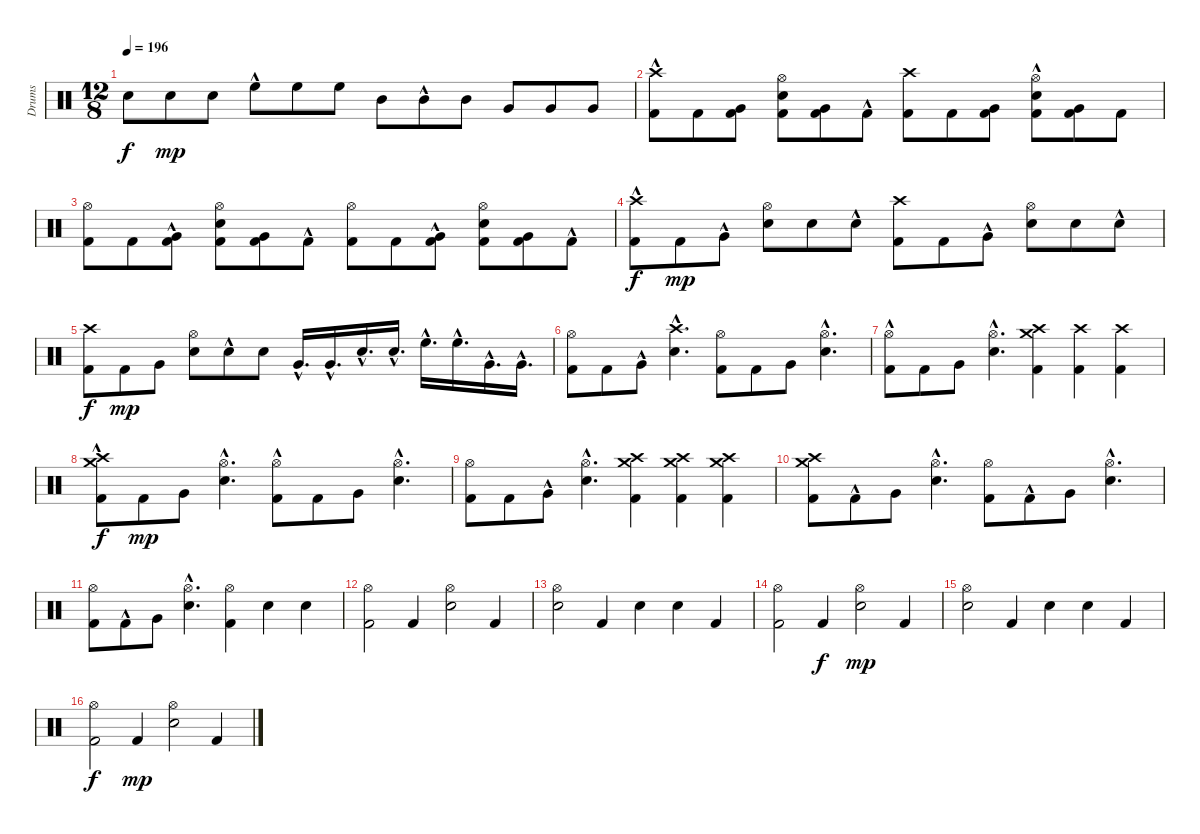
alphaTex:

\track ("Drums" "Drums") {instrument percussion}
\staff {score}
\articulation defaults
\ts (12 8)
\tempo 196
\clef neutral
\ks c "Electric Snare (hit)".8{dy f} "Electric Snare (hit)".8{dy mp} "Electric Snare (hit)".8 "High Floor Tom (hit)"{hac}.8 "High Floor Tom (hit)".8 "High Floor Tom (hit)".8 "Mid Tom (hit)".8 "Mid Tom (hit)"{hac}.8 "Mid Tom (hit)".8 "Very Low Tom (hit)".8 "Very Low Tom (hit)".8 "Very Low Tom (hit)".8
|
("Kick (hit) 2"{hac} "Crash high (hit)").8 "Kick (hit) 2".8 ("Kick (hit) 2" "Very Low Tom (hit)").8 ("Kick (hit) 2" "Electric Snare (hit)" "Hi-Hat (open)").8 ("Kick (hit) 2" "Very Low Tom (hit)").8 "Kick (hit) 2"{hac}.8 ("Kick (hit) 2" "Crash high (hit)").8 "Kick (hit) 2".8 ("Kick (hit) 2" "Very Low Tom (hit)").8 ("Kick (hit) 2"{hac} "Electric Snare (hit)"{hac} "Hi-Hat (open)").8 ("Kick (hit) 2" "Very Low Tom (hit)").8 "Kick (hit) 2".8 |
("Kick (hit) 2" "Hi-Hat (open)").8 "Kick (hit) 2".8 ("Kick (hit) 2"{hac} "Very Low Tom (hit)"{hac}).8 ("Kick (hit) 2" "Electric Snare (hit)" "Hi-Hat (open)").8 ("Kick (hit) 2" "Very Low Tom (hit)").8 "Kick (hit) 2"{hac}.8 ("Kick (hit) 2" "Hi-Hat (open)").8 "Kick (hit) 2".8 ("Kick (hit) 2"{hac} "Very Low Tom (hit)"{hac}).8 ("Kick (hit) 2" "Electric Snare (hit)" "Hi-Hat (open)").8 ("Kick (hit) 2" "Very Low Tom (hit)").8 "Kick (hit) 2"{hac}.8 |
("Kick (hit) 2" "Crash high (hit)"{hac}).8{dy f} "Kick (hit) 2".8{dy mp} "Very Low Tom (hit)"{hac}.8 ("Electric Snare (hit)" "Hi-Hat (open)").8 "Electric Snare (hit)".8 "Electric Snare (hit)"{hac}.8 ("Kick (hit) 2" "Crash high (hit)").8 "Kick (hit) 2".8 "Very Low Tom (hit)"{hac}.8 ("Electric Snare (hit)" "Hi-Hat (open)").8 "Electric Snare (hit)".8 "Electric Snare (hit)"{hac}.8 |
("Kick (hit) 2" "Crash high (hit)").8{dy f} "Kick (hit) 2".8{dy mp} "Very Low Tom (hit)".8 ("Electric Snare (hit)" "Hi-Hat (open)").8 "Electric Snare (hit)"{hac}.8 "Electric Snare (hit)".8 "Very Low Tom (hit)"{hac}.16{d} "Very Low Tom (hit)"{hac}.16{d} "Electric Snare (hit)"{hac}.16{d} "Electric Snare (hit)"{hac}.16{d} "High Floor Tom (hit)"{hac}.16{d} "High Floor Tom (hit)"{hac}.16{d} "Very Low Tom (hit)"{hac}.16{d} "Very Low Tom (hit)"{hac}.16{d} |
("Kick (hit) 2" "Hi-Hat (open)").8 "Kick (hit) 2".8 "Very Low Tom (hit)"{hac}.8 ("Electric Snare (hit)"{hac} "Crash high (hit)"{hac}).4{d} ("Kick (hit) 2" "Hi-Hat (open)").8 "Kick (hit) 2".8 "Very Low Tom (hit)".8 ("Electric Snare (hit)"{hac} "Hi-Hat (open)"{hac}).4{d} |
("Kick (hit) 2"{hac} "Hi-Hat (open)").8 "Kick (hit) 2".8 "Very Low Tom (hit)".8 ("Electric Snare (hit)"{hac} "Hi-Hat (open)"{hac}).4{d} ("Kick (hit) 2" "Crash high (hit)" "Crash medium (hit)").4 ("Kick (hit) 2" "Crash high (hit)").4 ("Kick (hit) 2" "Crash high (hit)").4 |
("Kick (hit) 2" "Crash high (hit)"{hac} "Crash medium (hit)"{hac}).8{dy f} "Kick (hit) 2".8{dy mp} "Very Low Tom (hit)".8 ("Electric Snare (hit)"{hac} "Hi-Hat (open)"{hac}).4{d} ("Kick (hit) 2"{hac} "Hi-Hat (open)").8 "Kick (hit) 2".8 "Very Low Tom (hit)".8 ("Electric Snare (hit)"{hac} "Hi-Hat (open)"{hac}).4{d} |
("Kick (hit) 2" "Hi-Hat (open)").8 "Kick (hit) 2".8 "Very Low Tom (hit)"{hac}.8 ("Electric Snare (hit)"{hac} "Hi-Hat (open)"{hac}).4{d} ("Kick (hit) 2" "Crash high (hit)" "Crash medium (hit)").4 ("Kick (hit) 2" "Crash high (hit)" "Crash medium (hit)").4 ("Kick (hit) 2" "Crash high (hit)" "Crash medium (hit)").4 |
("Kick (hit) 2" "Crash high (hit)" "Crash medium (hit)").8 "Kick (hit) 2"{hac}.8 "Very Low Tom (hit)".8 ("Electric Snare (hit)"{hac} "Hi-Hat (open)"{hac}).4{d} ("Kick (hit) 2" "Hi-Hat (open)").8 "Kick (hit) 2"{hac}.8 "Very Low Tom (hit)".8 ("Electric Snare (hit)"{hac} "Hi-Hat (open)"{hac}).4{d} |
("Kick (hit) 2" "Hi-Hat (open)").8 "Kick (hit) 2"{hac}.8 "Very Low Tom (hit)".8 ("Electric Snare (hit)"{hac} "Hi-Hat (open)"{hac}).4{d} ("Kick (hit) 2" "Hi-Hat (open)").4 "Electric Snare (hit)".4 "Electric Snare (hit)".4 |
("Kick (hit) 2" "Hi-Hat (open)").2 "Kick (hit) 2".4 ("Electric Snare (hit)" "Hi-Hat (open)").2 "Kick (hit) 2".4 |
("Electric Snare (hit)" "Hi-Hat (open)").2 "Kick (hit) 2".4 "Electric Snare (hit)".4 "Electric Snare (hit)".4 "Kick (hit) 2".4 |
("Kick (hit) 2" "Hi-Hat (open)").2 "Kick (hit) 2".4{dy f} ("Electric Snare (hit)" "Hi-Hat (open)").2{dy mp} "Kick (hit) 2".4 |
("Electric Snare (hit)" "Hi-Hat (open)").2 "Kick (hit) 2".4 "Electric Snare (hit)".4 "Electric Snare (hit)".4 "Kick (hit) 2".4 |
("Kick (hit) 2" "Hi-Hat (open)").2{dy f} "Kick (hit) 2".4{dy mp} ("Electric Snare (hit)" "Hi-Hat (open)").2 "Kick (hit) 2".4
